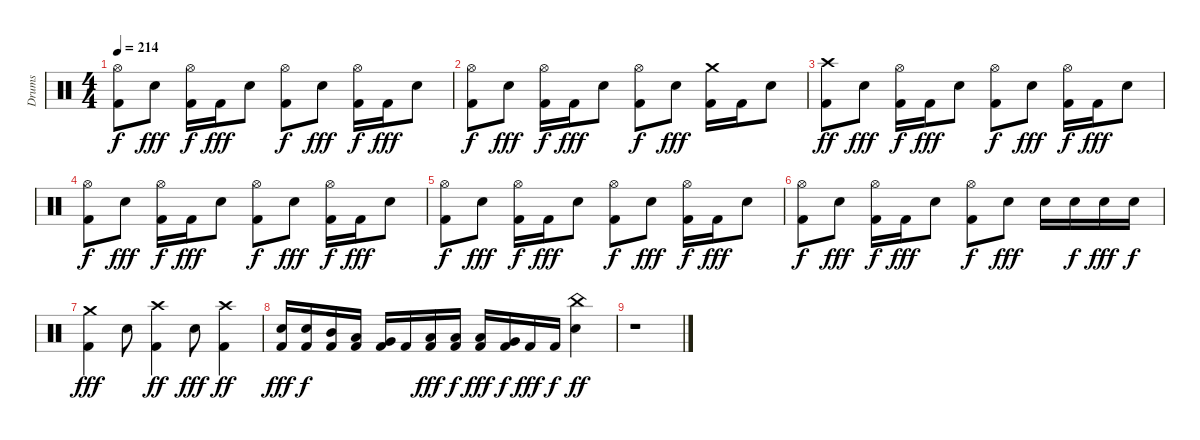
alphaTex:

\track ("Drums" "Drums") {instrument percussion}
\staff {score}
\articulation defaults
\ts (4 4)
\tempo 214
\clef neutral
\ks c
("Hi-Hat (open)" "Kick (hit) 2").8{dy f} "Snare (hit) 2".8{dy fff} ("Hi-Hat (open)" "Kick (hit) 2").16{dy f} "Kick (hit) 2".16{dy fff} "Snare (hit) 2".8 ("Hi-Hat (open)" "Kick (hit) 2").8{dy f} "Snare (hit) 2".8{dy fff} ("Hi-Hat (open)" "Kick (hit) 2").16{dy f} "Kick (hit) 2".16{dy fff} "Snare (hit) 2".8 |
("Hi-Hat (open)" "Kick (hit) 2").8{dy f} "Snare (hit) 2".8{dy fff} ("Hi-Hat (open)" "Kick (hit) 2").16{dy f} "Kick (hit) 2".16{dy fff} "Snare (hit) 2".8 ("Hi-Hat (open)" "Kick (hit) 2").8{dy f} "Snare (hit) 2".8{dy fff} ("Crash medium (hit)" "Kick (hit) 2").16 "Kick (hit) 2".16 "Snare (hit) 2".8 |
("Crash high (hit)" "Kick (hit) 2").8{dy ff} "Snare (hit) 2".8{dy fff} ("Hi-Hat (open)" "Kick (hit) 2").16{dy f} "Kick (hit) 2".16{dy fff} "Snare (hit) 2".8 ("Hi-Hat (open)" "Kick (hit) 2").8{dy f} "Snare (hit) 2".8{dy fff} ("Hi-Hat (open)" "Kick (hit) 2").16{dy f} "Kick (hit) 2".16{dy fff} "Snare (hit) 2".8 |
("Hi-Hat (open)" "Kick (hit) 2").8{dy f} "Snare (hit) 2".8{dy fff} ("Hi-Hat (open)" "Kick (hit) 2").16{dy f} "Kick (hit) 2".16{dy fff} "Snare (hit) 2".8 ("Hi-Hat (open)" "Kick (hit) 2").8{dy f} "Snare (hit) 2".8{dy fff} ("Hi-Hat (open)" "Kick (hit) 2").16{dy f} "Kick (hit) 2".16{dy fff} "Snare (hit) 2".8 |
("Hi-Hat (open)" "Kick (hit) 2").8{dy f} "Snare (hit) 2".8{dy fff} ("Hi-Hat (open)" "Kick (hit) 2").16{dy f} "Kick (hit) 2".16{dy fff} "Snare (hit) 2".8 ("Hi-Hat (open)" "Kick (hit) 2").8{dy f} "Snare (hit) 2".8{dy fff} ("Hi-Hat (open)" "Kick (hit) 2").16{dy f} "Kick (hit) 2".16{dy fff} "Snare (hit) 2".8 |
("Hi-Hat (open)" "Kick (hit) 2").8{dy f} "Snare (hit) 2".8{dy fff} ("Hi-Hat (open)" "Kick (hit) 2").16{dy f} "Kick (hit) 2".16{dy fff} "Snare (hit) 2".8 ("Hi-Hat (open)" "Kick (hit) 2").8{dy f} "Snare (hit) 2".8{dy fff} "Snare (hit) 2".16 "Snare (hit) 2".16{dy f} "Snare (hit) 2".16{dy fff} "Snare (hit) 2".16{dy f} |
("Crash medium (hit)" "Kick (hit) 2").4{dy fff} "Snare (hit) 2".8 ("Crash high (hit)" "Kick (hit) 2").4{dy ff} "Snare (hit) 2".8{dy fff} ("Crash high (hit)" "Kick (hit) 2").4{dy ff} |
("Snare (hit) 2" "Kick (hit) 2").16{dy fff} ("Snare (hit) 2" "Kick (hit) 2").16{dy f} ("Mid Tom (hit)" "Kick (hit) 2").16 ("Low Tom (hit)" "Kick (hit) 2").16 ("Very Low Tom (hit)" "Kick (hit) 2").16 "Kick (hit) 2".16 ("Low Tom (hit)" "Kick (hit) 2").16{dy fff} ("Low Tom (hit)" "Kick (hit) 2").16{dy f} ("Low Tom (hit)" "Kick (hit) 2").16{dy fff} ("Very Low Tom (hit)" "Kick (hit) 2").16{dy f} "Kick (hit) 2".16{dy fff} "Kick (hit) 2".16{dy f} ("China (hit)" "Snare (hit) 2").4{dy ff} |
r.1
